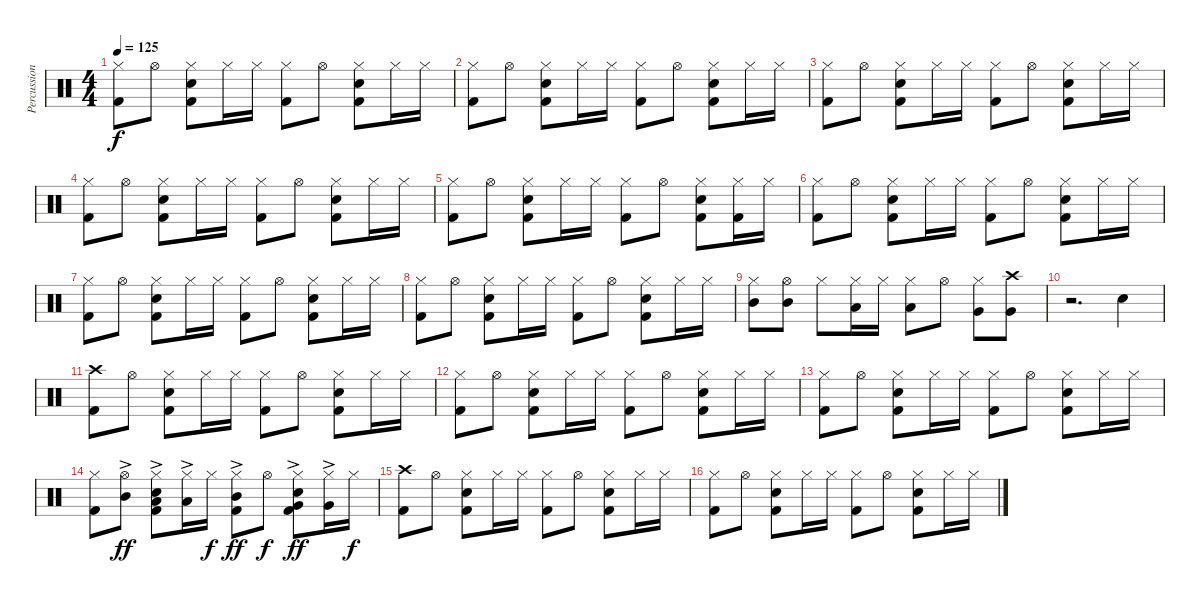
\track ("Percussion" "Percussion") {instrument percussion}
\staff {score}
\articulation defaults
\ts (4 4)
\tempo 125
\clef neutral
\ks c
("Hi-Hat (closed)" "Kick (hit) 2").8{dy f} "Hi-Hat (open)".8 ("Hi-Hat (closed)" "Electric Snare (hit)" "Kick (hit) 2").8 "Hi-Hat (closed)".16 "Hi-Hat (closed)".16 ("Hi-Hat (closed)" "Kick (hit) 2").8 "Hi-Hat (open)".8 ("Hi-Hat (closed)" "Electric Snare (hit)" "Kick (hit) 2").8 "Hi-Hat (closed)".16 "Hi-Hat (closed)".16 |
("Hi-Hat (closed)" "Kick (hit) 2").8 "Hi-Hat (open)".8 ("Hi-Hat (closed)" "Electric Snare (hit)" "Kick (hit) 2").8 "Hi-Hat (closed)".16 "Hi-Hat (closed)".16 ("Hi-Hat (closed)" "Kick (hit) 2").8 "Hi-Hat (open)".8 ("Hi-Hat (closed)" "Electric Snare (hit)" "Kick (hit) 2").8 "Hi-Hat (closed)".16 "Hi-Hat (closed)".16 |
("Hi-Hat (closed)" "Kick (hit) 2").8 "Hi-Hat (open)".8 ("Hi-Hat (closed)" "Electric Snare (hit)" "Kick (hit) 2").8 "Hi-Hat (closed)".16 "Hi-Hat (closed)".16 ("Hi-Hat (closed)" "Kick (hit) 2").8 "Hi-Hat (open)".8 ("Hi-Hat (closed)" "Electric Snare (hit)" "Kick (hit) 2").8 "Hi-Hat (closed)".16 "Hi-Hat (closed)".16 |
("Hi-Hat (closed)" "Kick (hit) 2").8 "Hi-Hat (open)".8 ("Hi-Hat (closed)" "Electric Snare (hit)" "Kick (hit) 2").8 "Hi-Hat (closed)".16 "Hi-Hat (closed)".16 ("Hi-Hat (closed)" "Kick (hit) 2").8 "Hi-Hat (open)".8 ("Hi-Hat (closed)" "Electric Snare (hit)" "Kick (hit) 2").8 "Hi-Hat (closed)".16 "Hi-Hat (closed)".16 |
("Hi-Hat (closed)" "Kick (hit) 2").8 "Hi-Hat (open)".8 ("Hi-Hat (closed)" "Electric Snare (hit)" "Kick (hit) 2").8 "Hi-Hat (closed)".16 "Hi-Hat (closed)".16 ("Hi-Hat (closed)" "Kick (hit) 2").8 "Hi-Hat (open)".8 ("Hi-Hat (closed)" "Electric Snare (hit)" "Kick (hit) 2").8 ("Hi-Hat (closed)" "Kick (hit) 2").16 "Hi-Hat (closed)".16 |
("Hi-Hat (closed)" "Kick (hit) 2").8 "Hi-Hat (open)".8 ("Hi-Hat (closed)" "Electric Snare (hit)" "Kick (hit) 2").8 "Hi-Hat (closed)".16 "Hi-Hat (closed)".16 ("Hi-Hat (closed)" "Kick (hit) 2").8 "Hi-Hat (open)".8 ("Hi-Hat (closed)" "Electric Snare (hit)" "Kick (hit) 2").8 "Hi-Hat (closed)".16 "Hi-Hat (closed)".16 |
("Hi-Hat (closed)" "Kick (hit) 2").8 "Hi-Hat (open)".8 ("Hi-Hat (closed)" "Electric Snare (hit)" "Kick (hit) 2").8 "Hi-Hat (closed)".16 "Hi-Hat (closed)".16 ("Hi-Hat (closed)" "Kick (hit) 2").8 "Hi-Hat (open)".8 ("Hi-Hat (closed)" "Electric Snare (hit)" "Kick (hit) 2").8 "Hi-Hat (closed)".16 "Hi-Hat (closed)".16 |
("Hi-Hat (closed)" "Kick (hit) 2").8 "Hi-Hat (open)".8 ("Hi-Hat (closed)" "Electric Snare (hit)" "Kick (hit) 2").8 "Hi-Hat (closed)".16 "Hi-Hat (closed)".16 ("Hi-Hat (closed)" "Kick (hit) 2").8 "Hi-Hat (open)".8 ("Hi-Hat (closed)" "Electric Snare (hit)" "Kick (hit) 2").8 "Hi-Hat (closed)".16 "Hi-Hat (closed)".16 |
("Hi-Hat (closed)" "Mid Tom (hit)").8 ("Hi-Hat (open)" "Mid Tom (hit)").8 "Hi-Hat (closed)".8 ("Hi-Hat (closed)" "Low Tom (hit)").16 "Hi-Hat (closed)".16 ("Hi-Hat (closed)" "Low Tom (hit)").8 "Hi-Hat (open)".8 ("Hi-Hat (closed)" "Very Low Tom (hit)").8 ("Crash high (hit)" "Very Low Tom (hit)").8 |
r.2{d} "Electric Snare (hit)".4 |
("Crash high (hit)" "Kick (hit) 2").8 "Hi-Hat (open)".8 ("Hi-Hat (closed)" "Electric Snare (hit)" "Kick (hit) 2").8 "Hi-Hat (closed)".16 "Hi-Hat (closed)".16 ("Hi-Hat (closed)" "Kick (hit) 2").8 "Hi-Hat (open)".8 ("Hi-Hat (closed)" "Electric Snare (hit)" "Kick (hit) 2").8 "Hi-Hat (closed)".16 "Hi-Hat (closed)".16 |
("Hi-Hat (closed)" "Kick (hit) 2").8 "Hi-Hat (open)".8 ("Hi-Hat (closed)" "Electric Snare (hit)" "Kick (hit) 2").8 "Hi-Hat (closed)".16 "Hi-Hat (closed)".16 ("Hi-Hat (closed)" "Kick (hit) 2").8 "Hi-Hat (open)".8 ("Hi-Hat (closed)" "Electric Snare (hit)" "Kick (hit) 2").8 "Hi-Hat (closed)".16 "Hi-Hat (closed)".16 |
("Hi-Hat (closed)" "Kick (hit) 2").8 "Hi-Hat (open)".8 ("Hi-Hat (closed)" "Electric Snare (hit)" "Kick (hit) 2").8 "Hi-Hat (closed)".16 "Hi-Hat (closed)".16 ("Hi-Hat (closed)" "Kick (hit) 2").8 "Hi-Hat (open)".8 ("Hi-Hat (closed)" "Electric Snare (hit)" "Kick (hit) 2").8 "Hi-Hat (closed)".16 "Hi-Hat (closed)".16 |
("Hi-Hat (closed)" "Kick (hit) 2").8 ("Hi-Hat (open)" "Mid Tom (hit)"{ac}).8{dy ff} ("Hi-Hat (closed)" "Low Tom (hit)"{ac} "Electric Snare (hit)" "Kick (hit) 2").8 ("Hi-Hat (closed)" "Low Tom (hit)"{ac}).16 "Hi-Hat (closed)".16{dy f} ("Hi-Hat (closed)" "Mid Tom (hit)"{ac} "Kick (hit) 2").8{dy ff} "Hi-Hat (open)".8{dy f} ("Hi-Hat (closed)" "Very Low Tom (hit)"{ac} "Electric Snare (hit)" "Kick (hit) 2").8{dy ff} ("Hi-Hat (closed)" "Very Low Tom (hit)"{ac}).16 "Hi-Hat (closed)".16{dy f} |
("Crash high (hit)" "Kick (hit) 2").8 "Hi-Hat (open)".8 ("Hi-Hat (closed)" "Electric Snare (hit)" "Kick (hit) 2").8 "Hi-Hat (closed)".16 "Hi-Hat (closed)".16 ("Hi-Hat (closed)" "Kick (hit) 2").8 "Hi-Hat (open)".8 ("Hi-Hat (closed)" "Electric Snare (hit)" "Kick (hit) 2").8 "Hi-Hat (closed)".16 "Hi-Hat (closed)".16 |
("Hi-Hat (closed)" "Kick (hit) 2").8 "Hi-Hat (open)".8 ("Hi-Hat (closed)" "Electric Snare (hit)" "Kick (hit) 2").8 "Hi-Hat (closed)".16 "Hi-Hat (closed)".16 ("Hi-Hat (closed)" "Kick (hit) 2").8 "Hi-Hat (open)".8 ("Hi-Hat (closed)" "Electric Snare (hit)" "Kick (hit) 2").8 "Hi-Hat (closed)".16 "Hi-Hat (closed)".16
